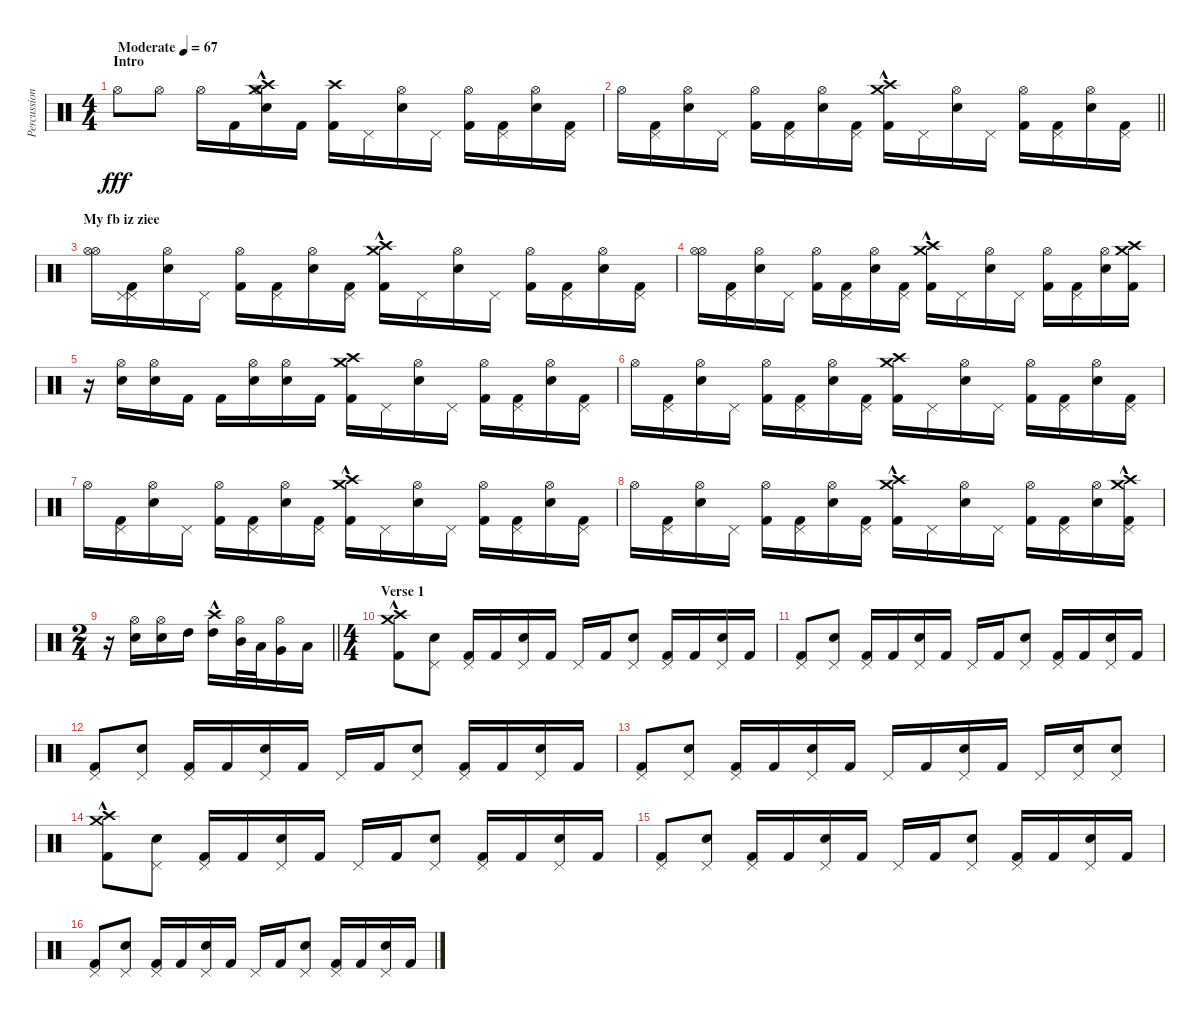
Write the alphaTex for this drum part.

\track ("Percussion(Tomi)" "Percussion") {instrument percussion}
\staff {score}
\articulation defaults
\ts (4 4)
\section ("" "Intro")
\tempo (67 "Moderate")
\clef neutral
\ks c "Hi-Hat (open)".8{dy fff} "Hi-Hat (open)".8 "Hi-Hat (open)".16 "Kick (hit) 2".16
("Hi-Hat (open)" "Electric Snare (hit)" "Crash high (hit)"{hac} "Crash medium (hit)"{hac}).16 "Kick (hit) 2".16 ("Kick (hit) 2" "Crash high (hit)").16 "Pedal Hi-Hat (hit)".16 ("Hi-Hat (open)" "Electric Snare (hit)").16 "Pedal Hi-Hat (hit)".16 ("Kick (hit) 2" "Hi-Hat (open)").16 ("Kick (hit) 2" "Pedal Hi-Hat (hit)").16 ("Hi-Hat (open)" "Electric Snare (hit)").16 ("Kick (hit) 2" "Pedal Hi-Hat (hit)").16 |
\barLineRight lightlight "Hi-Hat (open)".16
("Kick (hit) 2" "Pedal Hi-Hat (hit)").16 ("Hi-Hat (open)" "Electric Snare (hit)").16 "Pedal Hi-Hat (hit)".16 ("Hi-Hat (open)" "Kick (hit) 2").16 ("Kick (hit) 2" "Pedal Hi-Hat (hit)").16 ("Electric Snare (hit)" "Hi-Hat (open)").16 ("Kick (hit) 2" "Pedal Hi-Hat (hit)").16 ("Kick (hit) 2" "Crash high (hit)"{hac} "Crash medium (hit)"{hac}).16 "Pedal Hi-Hat (hit)".16 ("Hi-Hat (open)" "Electric Snare (hit)").16 "Pedal Hi-Hat (hit)".16 ("Hi-Hat (open)" "Kick (hit) 2").16 ("Kick (hit) 2" "Pedal Hi-Hat (hit)").16 ("Hi-Hat (open)" "Electric Snare (hit)").16 ("Kick (hit) 2" "Pedal Hi-Hat (hit)").16 |
\section ("" "My fb iz ziee")
("Hi-Hat (open)" "Hi-Hat (open)").16 ("Pedal Hi-Hat (hit)" "Kick (hit) 2" "Pedal Hi-Hat (hit)").16 ("Hi-Hat (open)" "Electric Snare (hit)").16 "Pedal Hi-Hat (hit)".16 ("Kick (hit) 2" "Hi-Hat (open)").16 ("Pedal Hi-Hat (hit)" "Kick (hit) 2").16 ("Hi-Hat (open)" "Electric Snare (hit)").16 ("Kick (hit) 2" "Pedal Hi-Hat (hit)").16 ("Kick (hit) 2" "Crash high (hit)"{hac} "Crash medium (hit)"{hac}).16 "Pedal Hi-Hat (hit)".16 ("Hi-Hat (open)" "Electric Snare (hit)").16 "Pedal Hi-Hat (hit)".16 ("Hi-Hat (open)" "Kick (hit) 2").16 ("Kick (hit) 2" "Pedal Hi-Hat (hit)").16 ("Hi-Hat (open)" "Electric Snare (hit)").16 ("Kick (hit) 2" "Pedal Hi-Hat (hit)").16 |
("Hi-Hat (open)" "Hi-Hat (open)").16 ("Pedal Hi-Hat (hit)" "Kick (hit) 2").16 ("Hi-Hat (open)" "Electric Snare (hit)").16 "Pedal Hi-Hat (hit)".16 ("Hi-Hat (open)" "Kick (hit) 2").16 ("Kick (hit) 2" "Pedal Hi-Hat (hit)").16 ("Hi-Hat (open)" "Electric Snare (hit)").16 ("Kick (hit) 2" "Pedal Hi-Hat (hit)").16 ("Kick (hit) 2" "Crash high (hit)"{hac} "Crash medium (hit)"{hac}).16 "Pedal Hi-Hat (hit)".16 ("Electric Snare (hit)" "Hi-Hat (open)").16 "Pedal Hi-Hat (hit)".16 ("Kick (hit) 2" "Hi-Hat (open)").16 ("Kick (hit) 2" "Pedal Hi-Hat (hit)").16 ("Hi-Hat (open)" "Electric Snare (hit)").16 ("Crash medium (hit)" "Kick (hit) 2" "Crash high (hit)").16 |
r.16 ("Hi-Hat (open)" "Electric Snare (hit)").16 ("Hi-Hat (open)" "Electric Snare (hit)").16 "Kick (hit) 2".16 "Kick (hit) 2".16 ("Hi-Hat (open)" "Electric Snare (hit)").16 ("Hi-Hat (open)" "Electric Snare (hit)").16 "Kick (hit) 2".16 ("Kick (hit) 2" "Crash high (hit)" "Crash medium (hit)").16 "Pedal Hi-Hat (hit)".16 ("Electric Snare (hit)" "Hi-Hat (open)").16 "Pedal Hi-Hat (hit)".16 ("Kick (hit) 2" "Hi-Hat (open)").16 ("Kick (hit) 2" "Pedal Hi-Hat (hit)").16 ("Electric Snare (hit)" "Hi-Hat (open)").16 ("Kick (hit) 2" "Pedal Hi-Hat (hit)").16 |
"Hi-Hat (open)".16 ("Kick (hit) 2" "Pedal Hi-Hat (hit)").16 ("Electric Snare (hit)" "Hi-Hat (open)").16 "Pedal Hi-Hat (hit)".16 ("Kick (hit) 2" "Hi-Hat (open)").16 ("Kick (hit) 2" "Pedal Hi-Hat (hit)").16 ("Hi-Hat (open)" "Electric Snare (hit)").16 ("Kick (hit) 2" "Pedal Hi-Hat (hit)").16 ("Kick (hit) 2" "Crash high (hit)" "Crash medium (hit)").16 "Pedal Hi-Hat (hit)".16 ("Electric Snare (hit)" "Hi-Hat (open)").16 "Pedal Hi-Hat (hit)".16 ("Kick (hit) 2" "Hi-Hat (open)").16 ("Kick (hit) 2" "Pedal Hi-Hat (hit)").16 ("Electric Snare (hit)" "Hi-Hat (open)").16 ("Kick (hit) 2" "Pedal Hi-Hat (hit)").16 |
"Hi-Hat (open)".16 ("Kick (hit) 2" "Pedal Hi-Hat (hit)").16 ("Electric Snare (hit)" "Hi-Hat (open)").16 "Pedal Hi-Hat (hit)".16 ("Kick (hit) 2" "Hi-Hat (open)").16 ("Kick (hit) 2" "Pedal Hi-Hat (hit)").16 ("Hi-Hat (open)" "Electric Snare (hit)").16 ("Kick (hit) 2" "Pedal Hi-Hat (hit)").16 ("Kick (hit) 2" "Crash high (hit)"{hac} "Crash medium (hit)"{hac}).16 "Pedal Hi-Hat (hit)".16 ("Electric Snare (hit)" "Hi-Hat (open)").16 "Pedal Hi-Hat (hit)".16 ("Kick (hit) 2" "Hi-Hat (open)").16 ("Kick (hit) 2" "Pedal Hi-Hat (hit)").16 ("Electric Snare (hit)" "Hi-Hat (open)").16 ("Kick (hit) 2" "Pedal Hi-Hat (hit)").16 |
"Hi-Hat (open)".16 ("Kick (hit) 2" "Pedal Hi-Hat (hit)").16 ("Electric Snare (hit)" "Hi-Hat (open)").16 "Pedal Hi-Hat (hit)".16 ("Kick (hit) 2" "Hi-Hat (open)").16 ("Kick (hit) 2" "Pedal Hi-Hat (hit)").16 ("Hi-Hat (open)" "Electric Snare (hit)").16 ("Kick (hit) 2" "Pedal Hi-Hat (hit)").16 ("Kick (hit) 2" "Crash medium (hit)"{hac} "Crash high (hit)"{hac}).16 "Pedal Hi-Hat (hit)".16 ("Electric Snare (hit)" "Hi-Hat (open)").16 "Pedal Hi-Hat (hit)".16 ("Kick (hit) 2" "Hi-Hat (open)").16 ("Kick (hit) 2" "Pedal Hi-Hat (hit)").16 ("Electric Snare (hit)" "Hi-Hat (open)").16 ("Pedal Hi-Hat (hit)" "Kick (hit) 2" "Crash high (hit)"{hac} "Crash medium (hit)"{hac}).16 |
\ts (2 4)
\barLineRight lightlight
r.16 ("Hi-Hat (open)" "Electric Snare (hit)").16 ("Hi-Hat (open)" "Electric Snare (hit)").16 "High Tom (hit)".16 ("High Tom (hit)" "Crash high (hit)"{hac}).16 ("Mid Tom (hit)" "Hi-Hat (open)").32 "Low Tom (hit)".32 ("Very Low Tom (hit)" "Hi-Hat (open)").16 "Low Floor Tom (hit)".16 |
\ts (4 4)
\section ("" "Verse 1")
("Kick (hit) 2" "Crash medium (hit)"{hac} "Crash high (hit)"{hac}).8 ("Pedal Hi-Hat (hit)" "Electric Snare (hit)").8 ("Kick (hit) 2" "Pedal Hi-Hat (hit)").16 "Kick (hit) 2".16 ("Electric Snare (hit)" "Pedal Hi-Hat (hit)").16 "Kick (hit) 2".16 "Pedal Hi-Hat (hit)".16 "Kick (hit) 2".16 ("Pedal Hi-Hat (hit)" "Electric Snare (hit)").8 ("Kick (hit) 2" "Pedal Hi-Hat (hit)").16 "Kick (hit) 2".16 ("Pedal Hi-Hat (hit)" "Electric Snare (hit)").16 "Kick (hit) 2".16 |
("Pedal Hi-Hat (hit)" "Kick (hit) 2").8 ("Pedal Hi-Hat (hit)" "Electric Snare (hit)").8 ("Kick (hit) 2" "Pedal Hi-Hat (hit)").16 "Kick (hit) 2".16 ("Pedal Hi-Hat (hit)" "Electric Snare (hit)").16 "Kick (hit) 2".16 "Pedal Hi-Hat (hit)".16 "Kick (hit) 2".16 ("Pedal Hi-Hat (hit)" "Electric Snare (hit)").8 ("Kick (hit) 2" "Pedal Hi-Hat (hit)").16 "Kick (hit) 2".16 ("Pedal Hi-Hat (hit)" "Electric Snare (hit)").16 "Kick (hit) 2".16 |
("Pedal Hi-Hat (hit)" "Kick (hit) 2").8 ("Pedal Hi-Hat (hit)" "Electric Snare (hit)").8 ("Kick (hit) 2" "Pedal Hi-Hat (hit)").16 "Kick (hit) 2".16 ("Pedal Hi-Hat (hit)" "Electric Snare (hit)").16 "Kick (hit) 2".16 "Pedal Hi-Hat (hit)".16 "Kick (hit) 2".16 ("Pedal Hi-Hat (hit)" "Electric Snare (hit)").8 ("Kick (hit) 2" "Pedal Hi-Hat (hit)").16 "Kick (hit) 2".16 ("Pedal Hi-Hat (hit)" "Electric Snare (hit)").16 "Kick (hit) 2".16 |
("Pedal Hi-Hat (hit)" "Kick (hit) 2").8 ("Pedal Hi-Hat (hit)" "Electric Snare (hit)").8 ("Kick (hit) 2" "Pedal Hi-Hat (hit)").16 "Kick (hit) 2".16 ("Pedal Hi-Hat (hit)" "Electric Snare (hit)").16 "Kick (hit) 2".16 "Pedal Hi-Hat (hit)".16 "Kick (hit) 2".16 ("Pedal Hi-Hat (hit)" "Electric Snare (hit)").16 "Kick (hit) 2".16 "Pedal Hi-Hat (hit)".16 ("Pedal Hi-Hat (hit)" "Electric Snare (hit)").16 ("Electric Snare (hit)" "Pedal Hi-Hat (hit)").8 |
("Kick (hit) 2" "Crash high (hit)"{hac} "Crash medium (hit)"{hac}).8 ("Pedal Hi-Hat (hit)" "Electric Snare (hit)").8 ("Kick (hit) 2" "Pedal Hi-Hat (hit)").16 "Kick (hit) 2".16 ("Electric Snare (hit)" "Pedal Hi-Hat (hit)").16 "Kick (hit) 2".16 "Pedal Hi-Hat (hit)".16 "Kick (hit) 2".16 ("Pedal Hi-Hat (hit)" "Electric Snare (hit)").8 ("Kick (hit) 2" "Pedal Hi-Hat (hit)").16 "Kick (hit) 2".16 ("Pedal Hi-Hat (hit)" "Electric Snare (hit)").16 "Kick (hit) 2".16 |
("Pedal Hi-Hat (hit)" "Kick (hit) 2").8 ("Pedal Hi-Hat (hit)" "Electric Snare (hit)").8 ("Kick (hit) 2" "Pedal Hi-Hat (hit)").16 "Kick (hit) 2".16 ("Pedal Hi-Hat (hit)" "Electric Snare (hit)").16 "Kick (hit) 2".16 "Pedal Hi-Hat (hit)".16 "Kick (hit) 2".16 ("Pedal Hi-Hat (hit)" "Electric Snare (hit)").8 ("Kick (hit) 2" "Pedal Hi-Hat (hit)").16 "Kick (hit) 2".16 ("Pedal Hi-Hat (hit)" "Electric Snare (hit)").16 "Kick (hit) 2".16 |
("Pedal Hi-Hat (hit)" "Kick (hit) 2").8 ("Pedal Hi-Hat (hit)" "Electric Snare (hit)").8 ("Kick (hit) 2" "Pedal Hi-Hat (hit)").16 "Kick (hit) 2".16 ("Pedal Hi-Hat (hit)" "Electric Snare (hit)").16 "Kick (hit) 2".16 "Pedal Hi-Hat (hit)".16 "Kick (hit) 2".16 ("Pedal Hi-Hat (hit)" "Electric Snare (hit)").8 ("Kick (hit) 2" "Pedal Hi-Hat (hit)").16 "Kick (hit) 2".16 ("Pedal Hi-Hat (hit)" "Electric Snare (hit)").16 "Kick (hit) 2".16
